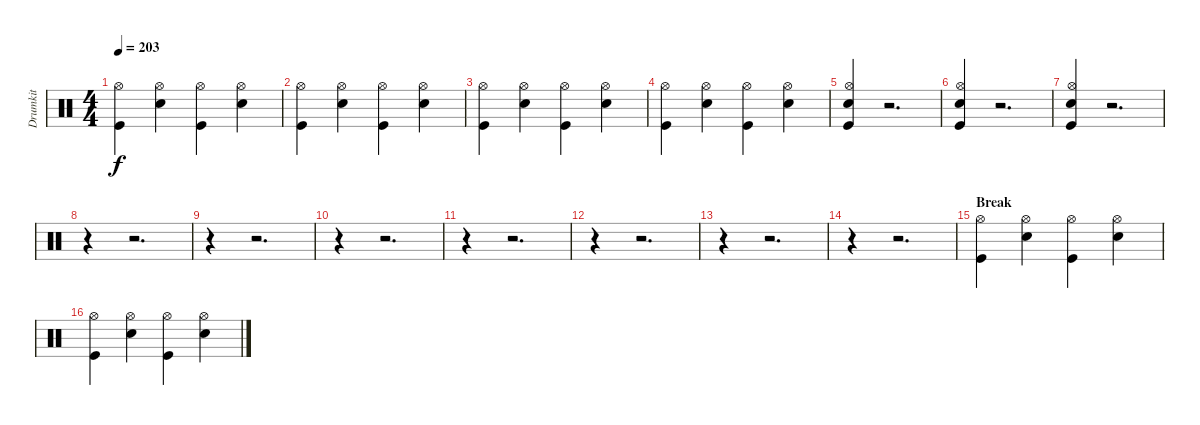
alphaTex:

\track ("Drumkit" "Drumkit") {instrument percussion}
\staff {score}
\articulation defaults
\ts (4 4)
\tempo 203
\clef neutral
\ks c
("Kick (hit)" "Hi-Hat (open)").4{dy f} ("Snare (hit) 2" "Hi-Hat (open)").4 ("Kick (hit)" "Hi-Hat (open)").4 ("Snare (hit) 2" "Hi-Hat (open)").4 |
("Kick (hit)" "Hi-Hat (open)").4 ("Snare (hit) 2" "Hi-Hat (open)").4 ("Kick (hit)" "Hi-Hat (open)").4 ("Snare (hit) 2" "Hi-Hat (open)").4 |
("Kick (hit)" "Hi-Hat (open)").4 ("Snare (hit) 2" "Hi-Hat (open)").4 ("Kick (hit)" "Hi-Hat (open)").4 ("Snare (hit) 2" "Hi-Hat (open)").4 |
("Kick (hit)" "Hi-Hat (open)").4 ("Snare (hit) 2" "Hi-Hat (open)").4 ("Kick (hit)" "Hi-Hat (open)").4 ("Snare (hit) 2" "Hi-Hat (open)").4 |
("Kick (hit)" "Hi-Hat (open)" "Snare (hit) 2").4 r.2{d} |
("Kick (hit)" "Hi-Hat (open)" "Snare (hit) 2").4 r.2{d} |
("Kick (hit)" "Hi-Hat (open)" "Snare (hit) 2").4 r.2{d} |
r.4 r.2{d} |
r.4 r.2{d} |
r.4 r.2{d} |
r.4 r.2{d} |
r.4 r.2{d} |
r.4 r.2{d} |
r.4 r.2{d} |
\section ("" "Break")
("Kick (hit)" "Hi-Hat (open)").4 ("Snare (hit) 2" "Hi-Hat (open)").4 ("Kick (hit)" "Hi-Hat (open)").4 ("Snare (hit) 2" "Hi-Hat (open)").4 |
("Kick (hit)" "Hi-Hat (open)").4 ("Snare (hit) 2" "Hi-Hat (open)").4 ("Kick (hit)" "Hi-Hat (open)").4 ("Snare (hit) 2" "Hi-Hat (open)").4
